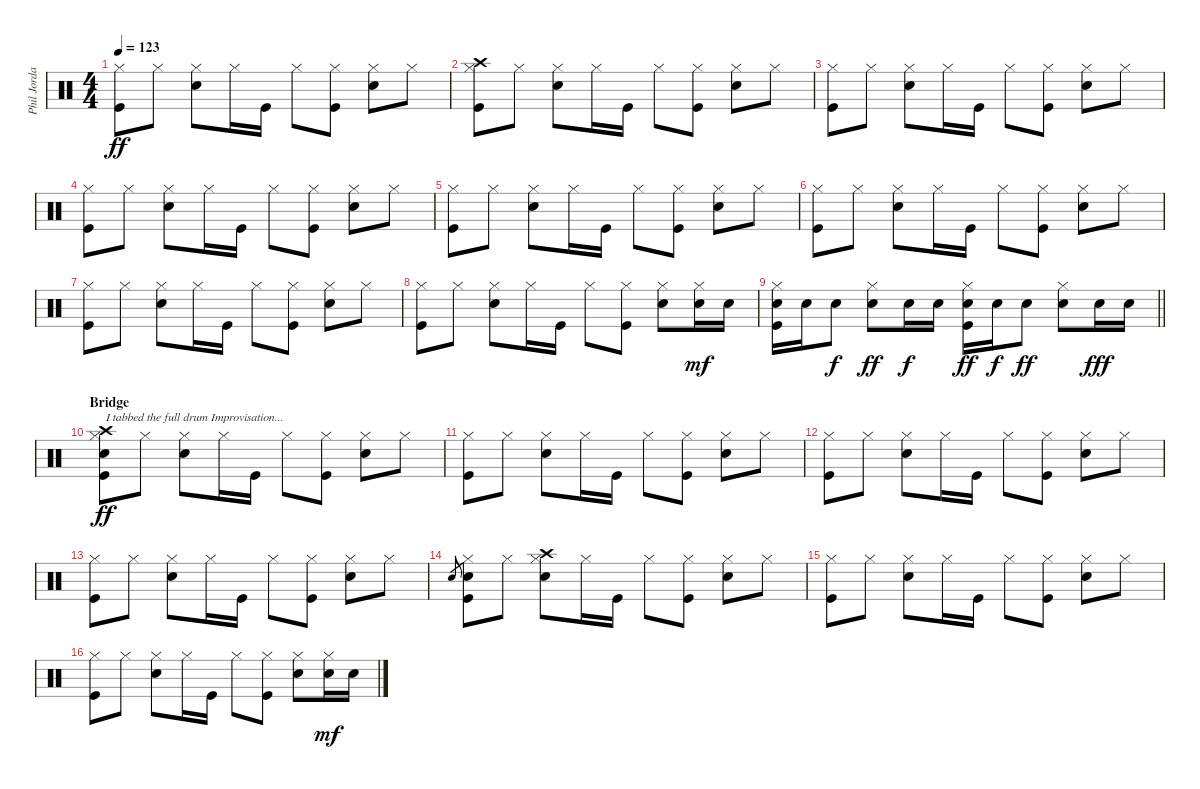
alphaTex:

\track ("Phil Jordan" "Phil Jorda") {instrument percussion}
\staff {score}
\articulation defaults
\ts (4 4)
\tempo 123
\clef neutral
\ks c
("Hi-Hat (closed)" "Kick (hit)").8{dy ff} "Hi-Hat (closed)".8 ("Hi-Hat (closed)" "Snare (hit) 2").8 "Hi-Hat (closed)".16 "Kick (hit)".16 "Hi-Hat (closed)".8 ("Hi-Hat (closed)" "Kick (hit)").8 ("Hi-Hat (closed)" "Snare (hit) 2").8 "Hi-Hat (closed)".8 |
("Crash high (hit)" "Hi-Hat (closed)" "Kick (hit)").8 "Hi-Hat (closed)".8 ("Hi-Hat (closed)" "Snare (hit) 2").8 "Hi-Hat (closed)".16 "Kick (hit)".16 "Hi-Hat (closed)".8 ("Hi-Hat (closed)" "Kick (hit)").8 ("Hi-Hat (closed)" "Snare (hit) 2").8 "Hi-Hat (closed)".8 |
("Hi-Hat (closed)" "Kick (hit)").8 "Hi-Hat (closed)".8 ("Hi-Hat (closed)" "Snare (hit) 2").8 "Hi-Hat (closed)".16 "Kick (hit)".16 "Hi-Hat (closed)".8 ("Hi-Hat (closed)" "Kick (hit)").8 ("Hi-Hat (closed)" "Snare (hit) 2").8 "Hi-Hat (closed)".8 |
("Hi-Hat (closed)" "Kick (hit)").8 "Hi-Hat (closed)".8 ("Hi-Hat (closed)" "Snare (hit) 2").8 "Hi-Hat (closed)".16 "Kick (hit)".16 "Hi-Hat (closed)".8 ("Hi-Hat (closed)" "Kick (hit)").8 ("Hi-Hat (closed)" "Snare (hit) 2").8 "Hi-Hat (closed)".8 |
("Hi-Hat (closed)" "Kick (hit)").8 "Hi-Hat (closed)".8 ("Hi-Hat (closed)" "Snare (hit) 2").8 "Hi-Hat (closed)".16 "Kick (hit)".16 "Hi-Hat (closed)".8 ("Hi-Hat (closed)" "Kick (hit)").8 ("Hi-Hat (closed)" "Snare (hit) 2").8 "Hi-Hat (closed)".8 |
("Hi-Hat (closed)" "Kick (hit)").8 "Hi-Hat (closed)".8 ("Hi-Hat (closed)" "Snare (hit) 2").8 "Hi-Hat (closed)".16 "Kick (hit)".16 "Hi-Hat (closed)".8 ("Hi-Hat (closed)" "Kick (hit)").8 ("Hi-Hat (closed)" "Snare (hit) 2").8 "Hi-Hat (closed)".8 |
("Hi-Hat (closed)" "Kick (hit)").8 "Hi-Hat (closed)".8 ("Hi-Hat (closed)" "Snare (hit) 2").8 "Hi-Hat (closed)".16 "Kick (hit)".16 "Hi-Hat (closed)".8 ("Hi-Hat (closed)" "Kick (hit)").8 ("Hi-Hat (closed)" "Snare (hit) 2").8 "Hi-Hat (closed)".8 |
("Hi-Hat (closed)" "Kick (hit)").8 "Hi-Hat (closed)".8 ("Hi-Hat (closed)" "Snare (hit) 2").8 "Hi-Hat (closed)".16 "Kick (hit)".16 "Hi-Hat (closed)".8 ("Hi-Hat (closed)" "Kick (hit)").8 ("Hi-Hat (closed)" "Snare (hit) 2").8 ("Hi-Hat (closed)" "Snare (hit) 2").16{dy mf} "Snare (hit) 2".16 |
\barLineRight lightlight
("Hi-Hat (closed)" "Snare (hit) 2" "Kick (hit)").16 "Snare (hit) 2".16 "Snare (hit) 2".8{dy f} ("Hi-Hat (closed)" "Snare (hit) 2").8{dy ff} "Snare (hit) 2".16{dy f} "Snare (hit) 2".16 ("Hi-Hat (closed)" "Snare (hit) 2" "Kick (hit)").16{dy ff} "Snare (hit) 2".16{dy f} "Snare (hit) 2".8{dy ff} ("Hi-Hat (closed)" "Snare (hit) 2").8 "Snare (hit) 2".16{dy fff} "Snare (hit) 2".16 |
\section ("" "Bridge")
("Crash high (hit)" "Hi-Hat (closed)" "Snare (hit) 2" "Kick (hit)").8{txt "I tabbed the full drum Improvisation..." dy ff} "Hi-Hat (closed)".8 ("Hi-Hat (closed)" "Snare (hit) 2").8 "Hi-Hat (closed)".16 "Kick (hit)".16 "Hi-Hat (closed)".8 ("Hi-Hat (closed)" "Kick (hit)").8 ("Hi-Hat (closed)" "Snare (hit) 2").8 "Hi-Hat (closed)".8 |
("Hi-Hat (closed)" "Kick (hit)").8 "Hi-Hat (closed)".8 ("Hi-Hat (closed)" "Snare (hit) 2").8 "Hi-Hat (closed)".16 "Kick (hit)".16 "Hi-Hat (closed)".8 ("Hi-Hat (closed)" "Kick (hit)").8 ("Hi-Hat (closed)" "Snare (hit) 2").8 "Hi-Hat (closed)".8 |
("Hi-Hat (closed)" "Kick (hit)").8 "Hi-Hat (closed)".8 ("Hi-Hat (closed)" "Snare (hit) 2").8 "Hi-Hat (closed)".16 "Kick (hit)".16 "Hi-Hat (closed)".8 ("Hi-Hat (closed)" "Kick (hit)").8 ("Hi-Hat (closed)" "Snare (hit) 2").8 "Hi-Hat (closed)".8 |
("Hi-Hat (closed)" "Kick (hit)").8 "Hi-Hat (closed)".8 ("Hi-Hat (closed)" "Snare (hit) 2").8 "Hi-Hat (closed)".16 "Kick (hit)".16 "Hi-Hat (closed)".8 ("Hi-Hat (closed)" "Kick (hit)").8 ("Hi-Hat (closed)" "Snare (hit) 2").8 "Hi-Hat (closed)".8 |
"Snare (hit) 2".8{gr} ("Hi-Hat (closed)" "Snare (hit) 2" "Kick (hit)").8 "Hi-Hat (closed)".8 ("Crash high (hit)" "Hi-Hat (closed)" "Snare (hit) 2").8 "Hi-Hat (closed)".16 "Kick (hit)".16 "Hi-Hat (closed)".8 ("Hi-Hat (closed)" "Kick (hit)").8 ("Hi-Hat (closed)" "Snare (hit) 2").8 "Hi-Hat (closed)".8 |
("Hi-Hat (closed)" "Kick (hit)").8 "Hi-Hat (closed)".8 ("Hi-Hat (closed)" "Snare (hit) 2").8 "Hi-Hat (closed)".16 "Kick (hit)".16 "Hi-Hat (closed)".8 ("Hi-Hat (closed)" "Kick (hit)").8 ("Hi-Hat (closed)" "Snare (hit) 2").8 "Hi-Hat (closed)".8 |
("Hi-Hat (closed)" "Kick (hit)").8 "Hi-Hat (closed)".8 ("Hi-Hat (closed)" "Snare (hit) 2").8 "Hi-Hat (closed)".16 "Kick (hit)".16 "Hi-Hat (closed)".8 ("Hi-Hat (closed)" "Kick (hit)").8 ("Hi-Hat (closed)" "Snare (hit) 2").8 ("Hi-Hat (closed)" "Snare (hit) 2").16{dy mf} "Snare (hit) 2".16
